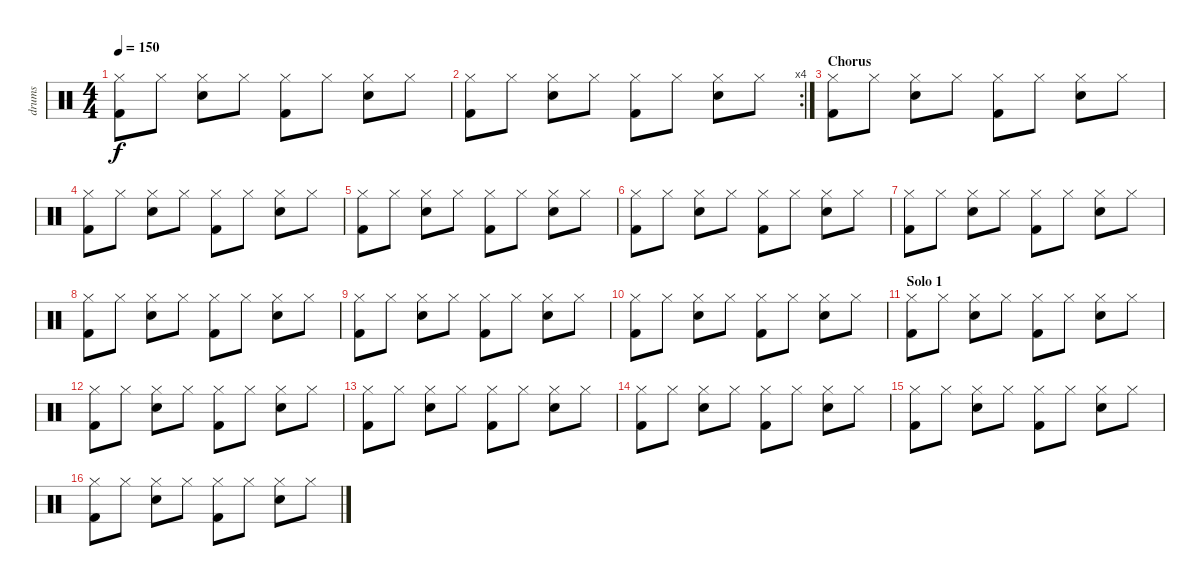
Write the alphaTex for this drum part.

\track ("drums" "drums") {instrument percussion}
\staff {score}
\articulation defaults
\ts (4 4)
\tempo 150
\clef neutral
\ks c
("Hi-Hat (closed)" "Kick (hit) 2").8{dy f} "Hi-Hat (closed)".8 ("Hi-Hat (closed)" "Electric Snare (hit)").8 "Hi-Hat (closed)".8 ("Hi-Hat (closed)" "Kick (hit) 2").8 "Hi-Hat (closed)".8 ("Hi-Hat (closed)" "Electric Snare (hit)").8 "Hi-Hat (closed)".8 |
\rc 4
("Hi-Hat (closed)" "Kick (hit) 2").8 "Hi-Hat (closed)".8 ("Hi-Hat (closed)" "Electric Snare (hit)").8 "Hi-Hat (closed)".8 ("Hi-Hat (closed)" "Kick (hit) 2").8 "Hi-Hat (closed)".8 ("Hi-Hat (closed)" "Electric Snare (hit)").8 "Hi-Hat (closed)".8 |
\section ("" "Chorus")
("Hi-Hat (closed)" "Kick (hit) 2").8 "Hi-Hat (closed)".8 ("Hi-Hat (closed)" "Electric Snare (hit)").8 "Hi-Hat (closed)".8 ("Hi-Hat (closed)" "Kick (hit) 2").8 "Hi-Hat (closed)".8 ("Hi-Hat (closed)" "Electric Snare (hit)").8 "Hi-Hat (closed)".8 |
("Hi-Hat (closed)" "Kick (hit) 2").8 "Hi-Hat (closed)".8 ("Hi-Hat (closed)" "Electric Snare (hit)").8 "Hi-Hat (closed)".8 ("Hi-Hat (closed)" "Kick (hit) 2").8 "Hi-Hat (closed)".8 ("Hi-Hat (closed)" "Electric Snare (hit)").8 "Hi-Hat (closed)".8 |
("Hi-Hat (closed)" "Kick (hit) 2").8 "Hi-Hat (closed)".8 ("Hi-Hat (closed)" "Electric Snare (hit)").8 "Hi-Hat (closed)".8 ("Hi-Hat (closed)" "Kick (hit) 2").8 "Hi-Hat (closed)".8 ("Hi-Hat (closed)" "Electric Snare (hit)").8 "Hi-Hat (closed)".8 |
("Hi-Hat (closed)" "Kick (hit) 2").8 "Hi-Hat (closed)".8 ("Hi-Hat (closed)" "Electric Snare (hit)").8 "Hi-Hat (closed)".8 ("Hi-Hat (closed)" "Kick (hit) 2").8 "Hi-Hat (closed)".8 ("Hi-Hat (closed)" "Electric Snare (hit)").8 "Hi-Hat (closed)".8 |
("Hi-Hat (closed)" "Kick (hit) 2").8 "Hi-Hat (closed)".8 ("Hi-Hat (closed)" "Electric Snare (hit)").8 "Hi-Hat (closed)".8 ("Hi-Hat (closed)" "Kick (hit) 2").8 "Hi-Hat (closed)".8 ("Hi-Hat (closed)" "Electric Snare (hit)").8 "Hi-Hat (closed)".8 |
("Hi-Hat (closed)" "Kick (hit) 2").8 "Hi-Hat (closed)".8 ("Hi-Hat (closed)" "Electric Snare (hit)").8 "Hi-Hat (closed)".8 ("Hi-Hat (closed)" "Kick (hit) 2").8 "Hi-Hat (closed)".8 ("Hi-Hat (closed)" "Electric Snare (hit)").8 "Hi-Hat (closed)".8 |
("Hi-Hat (closed)" "Kick (hit) 2").8 "Hi-Hat (closed)".8 ("Hi-Hat (closed)" "Electric Snare (hit)").8 "Hi-Hat (closed)".8 ("Hi-Hat (closed)" "Kick (hit) 2").8 "Hi-Hat (closed)".8 ("Hi-Hat (closed)" "Electric Snare (hit)").8 "Hi-Hat (closed)".8 |
("Hi-Hat (closed)" "Kick (hit) 2").8 "Hi-Hat (closed)".8 ("Hi-Hat (closed)" "Electric Snare (hit)").8 "Hi-Hat (closed)".8 ("Hi-Hat (closed)" "Kick (hit) 2").8 "Hi-Hat (closed)".8 ("Hi-Hat (closed)" "Electric Snare (hit)").8 "Hi-Hat (closed)".8 |
\section ("" "Solo 1 ")
("Hi-Hat (closed)" "Kick (hit) 2").8 "Hi-Hat (closed)".8 ("Hi-Hat (closed)" "Electric Snare (hit)").8 "Hi-Hat (closed)".8 ("Hi-Hat (closed)" "Kick (hit) 2").8 "Hi-Hat (closed)".8 ("Hi-Hat (closed)" "Electric Snare (hit)").8 "Hi-Hat (closed)".8 |
("Hi-Hat (closed)" "Kick (hit) 2").8 "Hi-Hat (closed)".8 ("Hi-Hat (closed)" "Electric Snare (hit)").8 "Hi-Hat (closed)".8 ("Hi-Hat (closed)" "Kick (hit) 2").8 "Hi-Hat (closed)".8 ("Hi-Hat (closed)" "Electric Snare (hit)").8 "Hi-Hat (closed)".8 |
("Hi-Hat (closed)" "Kick (hit) 2").8 "Hi-Hat (closed)".8 ("Hi-Hat (closed)" "Electric Snare (hit)").8 "Hi-Hat (closed)".8 ("Hi-Hat (closed)" "Kick (hit) 2").8 "Hi-Hat (closed)".8 ("Hi-Hat (closed)" "Electric Snare (hit)").8 "Hi-Hat (closed)".8 |
("Hi-Hat (closed)" "Kick (hit) 2").8 "Hi-Hat (closed)".8 ("Hi-Hat (closed)" "Electric Snare (hit)").8 "Hi-Hat (closed)".8 ("Hi-Hat (closed)" "Kick (hit) 2").8 "Hi-Hat (closed)".8 ("Hi-Hat (closed)" "Electric Snare (hit)").8 "Hi-Hat (closed)".8 |
("Hi-Hat (closed)" "Kick (hit) 2").8 "Hi-Hat (closed)".8 ("Hi-Hat (closed)" "Electric Snare (hit)").8 "Hi-Hat (closed)".8 ("Hi-Hat (closed)" "Kick (hit) 2").8 "Hi-Hat (closed)".8 ("Hi-Hat (closed)" "Electric Snare (hit)").8 "Hi-Hat (closed)".8 |
("Hi-Hat (closed)" "Kick (hit) 2").8 "Hi-Hat (closed)".8 ("Hi-Hat (closed)" "Electric Snare (hit)").8 "Hi-Hat (closed)".8 ("Hi-Hat (closed)" "Kick (hit) 2").8 "Hi-Hat (closed)".8 ("Hi-Hat (closed)" "Electric Snare (hit)").8 "Hi-Hat (closed)".8
